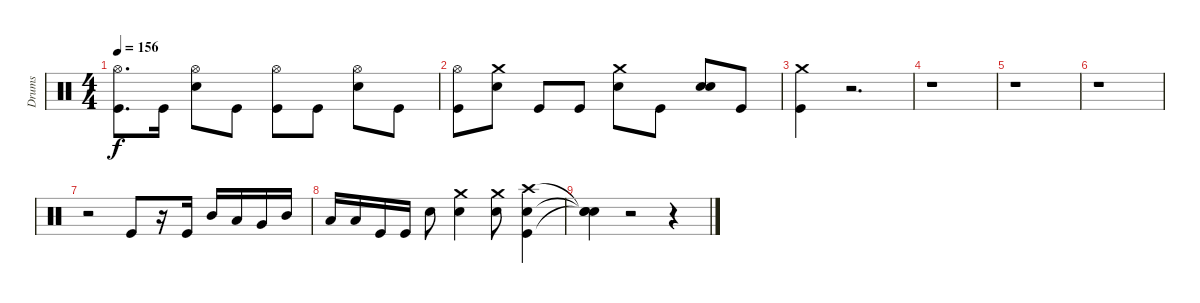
\track ("Drums" "Drums") {instrument percussion}
\staff {score}
\articulation defaults
\ts (4 4)
\tempo 156
\clef neutral
\ks c
("Kick (hit)" "Hi-Hat (open)").8{d dy f} "Kick (hit)".16 ("Electric Snare (hit)" "Hi-Hat (open)").8 "Kick (hit)".8 ("Kick (hit)" "Hi-Hat (open)").8 "Kick (hit)".8 ("Electric Snare (hit)" "Hi-Hat (open)").8 "Kick (hit)".8 |
("Kick (hit)" "Hi-Hat (open)").8 ("Electric Snare (hit)" "Crash medium (hit)").8 "Kick (hit)".8 "Kick (hit)".8 ("Electric Snare (hit)" "Crash medium (hit)").8 "Kick (hit)".8 ("Electric Snare (hit)" "Electric Snare (hit)").8 "Kick (hit)".8 |
("Kick (hit)" "Crash medium (hit)").4 r.2{d} |
r.1 |
r.1 |
r.1 |
r.2 "Kick (hit)".8 r.16 "Kick (hit)".16 "Mid Tom (hit)".16 "Low Tom (hit)".16 "Very Low Tom (hit)".16 "Mid Tom (hit)".16 |
"Low Tom (hit)".16 "Low Tom (hit)".16 "Kick (hit)".16 "Kick (hit)".16 "Electric Snare (hit)".8 ("Electric Snare (hit)" "Crash medium (hit)").4 ("Electric Snare (hit)" "Crash medium (hit)").8 ("Kick (hit)" "Electric Snare (hit)" "Crash high (hit)").4 |
("Snare (hit)"{t} "Snare (hit)"{t} "Snare (hit)"{t}).4 r.2 r.4
